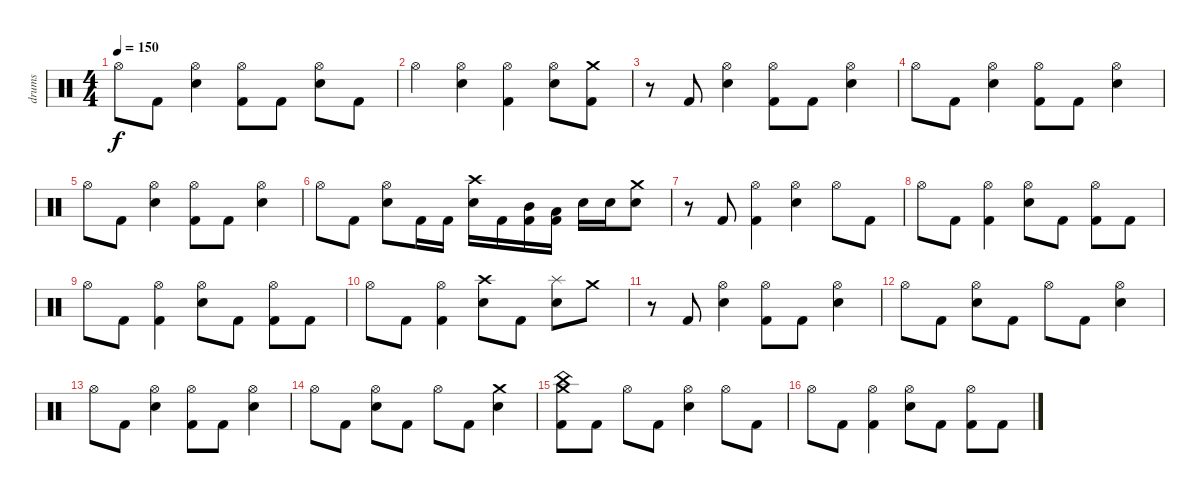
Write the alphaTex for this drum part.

\track ("drums" "drums") {instrument percussion}
\staff {score}
\articulation defaults
\ts (4 4)
\tempo 150
\clef neutral
\ks c "Hi-Hat (open)".8{dy f} "Kick (hit) 2".8
("Hi-Hat (open)" "Electric Snare (hit)").4 ("Hi-Hat (open)" "Kick (hit) 2").8 "Kick (hit) 2".8 ("Hi-Hat (open)" "Electric Snare (hit)").8 "Kick (hit) 2".8 |
"Hi-Hat (open)".4 ("Hi-Hat (open)" "Electric Snare (hit)").4 ("Hi-Hat (open)" "Kick (hit) 2").4 ("Hi-Hat (open)" "Electric Snare (hit)").8 ("Crash medium (hit)" "Kick (hit) 2").8 |
r.8 "Kick (hit) 2".8 ("Hi-Hat (open)" "Electric Snare (hit)").4 ("Hi-Hat (open)" "Kick (hit) 2").8 "Kick (hit) 2".8 ("Hi-Hat (open)" "Electric Snare (hit)").4 |
"Hi-Hat (open)".8 "Kick (hit) 2".8 ("Hi-Hat (open)" "Electric Snare (hit)").4 ("Hi-Hat (open)" "Kick (hit) 2").8 "Kick (hit) 2".8 ("Hi-Hat (open)" "Electric Snare (hit)").4 |
"Hi-Hat (open)".8 "Kick (hit) 2".8 ("Hi-Hat (open)" "Electric Snare (hit)").4 ("Hi-Hat (open)" "Kick (hit) 2").8 "Kick (hit) 2".8 ("Hi-Hat (open)" "Electric Snare (hit)").4 |
"Hi-Hat (open)".8 "Kick (hit) 2".8 ("Hi-Hat (open)" "Electric Snare (hit)").8 "Kick (hit) 2".16 "Kick (hit) 2".16 ("Crash high (hit)" "Electric Snare (hit)").16 "Kick (hit) 2".16 ("Mid Tom (hit)" "Kick (hit) 2").16 ("Low Tom (hit)" "Kick (hit) 2").16 "Electric Snare (hit)".16 "Electric Snare (hit)".16 ("Crash medium (hit)" "Electric Snare (hit)").8 |
r.8 "Kick (hit) 2".8 ("Hi-Hat (open)" "Kick (hit) 2").4 ("Hi-Hat (open)" "Electric Snare (hit)").4 "Hi-Hat (open)".8 "Kick (hit) 2".8 |
"Hi-Hat (open)".8 "Kick (hit) 2".8 ("Hi-Hat (open)" "Kick (hit) 2").4 ("Hi-Hat (open)" "Electric Snare (hit)").8 "Kick (hit) 2".8 ("Hi-Hat (open)" "Kick (hit) 2").8 "Kick (hit) 2".8 |
"Hi-Hat (open)".8 "Kick (hit) 2".8 ("Hi-Hat (open)" "Kick (hit) 2").4 ("Hi-Hat (open)" "Electric Snare (hit)").8 "Kick (hit) 2".8 ("Hi-Hat (open)" "Kick (hit) 2").8 "Kick (hit) 2".8 |
"Hi-Hat (open)".8 "Kick (hit) 2".8 ("Hi-Hat (open)" "Kick (hit) 2").4 ("Crash high (hit)" "Electric Snare (hit)").8 "Kick (hit) 2".8 ("Splash (hit)" "Electric Snare (hit)").8 "Crash medium (hit)".8 |
r.8 "Kick (hit) 2".8 ("Hi-Hat (open)" "Electric Snare (hit)").4 ("Hi-Hat (open)" "Kick (hit) 2").8 "Kick (hit) 2".8 ("Hi-Hat (open)" "Electric Snare (hit)").4 |
"Hi-Hat (open)".8 "Kick (hit) 2".8 ("Hi-Hat (open)" "Electric Snare (hit)").8 "Kick (hit) 2".8 "Hi-Hat (open)".8 "Kick (hit) 2".8 ("Hi-Hat (open)" "Electric Snare (hit)").4 |
"Hi-Hat (open)".8 "Kick (hit) 2".8 ("Hi-Hat (open)" "Electric Snare (hit)").4 ("Hi-Hat (open)" "Kick (hit) 2").8 "Kick (hit) 2".8 ("Hi-Hat (open)" "Electric Snare (hit)").4 |
"Hi-Hat (open)".8 "Kick (hit) 2".8 ("Hi-Hat (open)" "Electric Snare (hit)").8 "Kick (hit) 2".8 "Hi-Hat (open)".8 "Kick (hit) 2".8 ("Crash medium (hit)" "Electric Snare (hit)").4 |
("Crash medium (hit)" "China (hit)" "Kick (hit) 2").8 "Kick (hit) 2".8 "Hi-Hat (open)".8 "Kick (hit) 2".8 ("Hi-Hat (open)" "Electric Snare (hit)").4 "Hi-Hat (open)".8 "Kick (hit) 2".8 |
"Hi-Hat (open)".8 "Kick (hit) 2".8 ("Hi-Hat (open)" "Kick (hit) 2").4 ("Hi-Hat (open)" "Electric Snare (hit)").8 "Kick (hit) 2".8 ("Hi-Hat (open)" "Kick (hit) 2").8 "Kick (hit) 2".8
